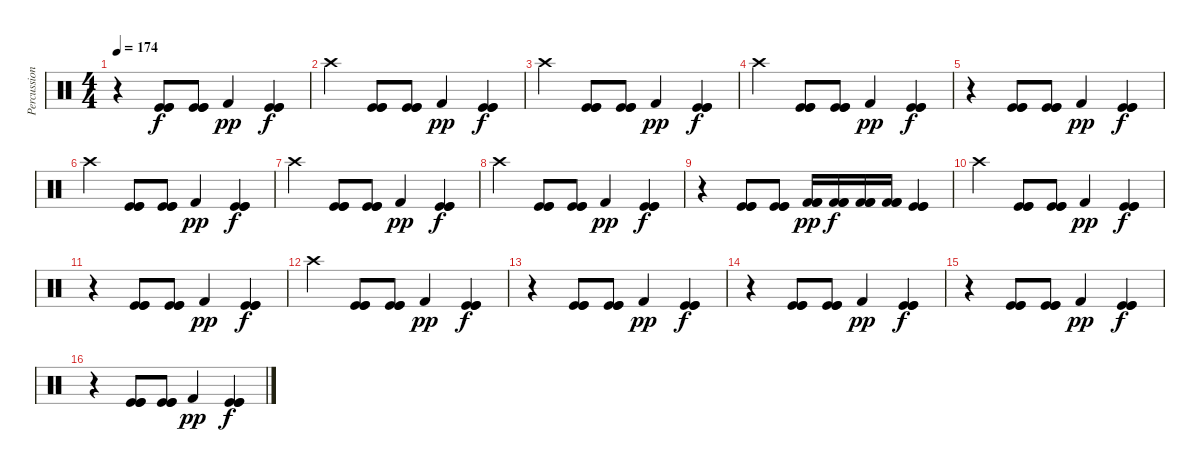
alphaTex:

\track ("Percussions" "Percussion") {instrument percussion}
\staff {score}
\articulation defaults
\ts (4 4)
\tempo 174
\clef neutral
\ks c
r.4{dy f} ("Kick (hit)" "Kick (hit)" "Kick (hit)").8 ("Kick (hit)" "Kick (hit)" "Kick (hit)").8 "Kick (hit) 2".4{dy pp} ("Kick (hit)" "Kick (hit)" "Kick (hit)").4{dy f} |
"Crash high (hit)".4 ("Kick (hit)" "Kick (hit)" "Kick (hit)").8 ("Kick (hit)" "Kick (hit)" "Kick (hit)").8 "Kick (hit) 2".4{dy pp} ("Kick (hit)" "Kick (hit)" "Kick (hit)").4{dy f} |
"Crash high (hit)".4 ("Kick (hit)" "Kick (hit)" "Kick (hit)").8 ("Kick (hit)" "Kick (hit)" "Kick (hit)").8 "Kick (hit) 2".4{dy pp} ("Kick (hit)" "Kick (hit)" "Kick (hit)").4{dy f} |
"Crash high (hit)".4 ("Kick (hit)" "Kick (hit)" "Kick (hit)").8 ("Kick (hit)" "Kick (hit)" "Kick (hit)").8 "Kick (hit) 2".4{dy pp} ("Kick (hit)" "Kick (hit)" "Kick (hit)").4{dy f} |
r.4 ("Kick (hit)" "Kick (hit)" "Kick (hit)").8 ("Kick (hit)" "Kick (hit)" "Kick (hit)").8 "Kick (hit) 2".4{dy pp} ("Kick (hit)" "Kick (hit)" "Kick (hit)").4{dy f} |
"Crash high (hit)".4 ("Kick (hit)" "Kick (hit)" "Kick (hit)").8 ("Kick (hit)" "Kick (hit)" "Kick (hit)").8 "Kick (hit) 2".4{dy pp} ("Kick (hit)" "Kick (hit)" "Kick (hit)").4{dy f} |
"Crash high (hit)".4 ("Kick (hit)" "Kick (hit)" "Kick (hit)").8 ("Kick (hit)" "Kick (hit)" "Kick (hit)").8 "Kick (hit) 2".4{dy pp} ("Kick (hit)" "Kick (hit)" "Kick (hit)").4{dy f} |
"Crash high (hit)".4 ("Kick (hit)" "Kick (hit)" "Kick (hit)").8 ("Kick (hit)" "Kick (hit)" "Kick (hit)").8 "Kick (hit) 2".4{dy pp} ("Kick (hit)" "Kick (hit)" "Kick (hit)").4{dy f} |
r.4 ("Kick (hit)" "Kick (hit)" "Kick (hit)").8 ("Kick (hit)" "Kick (hit)" "Kick (hit)").8 ("Kick (hit) 2" "Kick (hit) 2" "Kick (hit) 2").16{dy pp} ("Kick (hit) 2" "Kick (hit) 2" "Kick (hit) 2").16{dy f} ("Kick (hit) 2" "Kick (hit) 2" "Kick (hit) 2").16 ("Kick (hit) 2" "Kick (hit) 2" "Kick (hit) 2").16 ("Kick (hit)" "Kick (hit)" "Kick (hit)").4 |
"Crash high (hit)".4 ("Kick (hit)" "Kick (hit)" "Kick (hit)").8 ("Kick (hit)" "Kick (hit)" "Kick (hit)").8 "Kick (hit) 2".4{dy pp} ("Kick (hit)" "Kick (hit)" "Kick (hit)").4{dy f} |
r.4 ("Kick (hit)" "Kick (hit)" "Kick (hit)").8 ("Kick (hit)" "Kick (hit)" "Kick (hit)").8 "Kick (hit) 2".4{dy pp} ("Kick (hit)" "Kick (hit)" "Kick (hit)").4{dy f} |
"Crash high (hit)".4 ("Kick (hit)" "Kick (hit)" "Kick (hit)").8 ("Kick (hit)" "Kick (hit)" "Kick (hit)").8 "Kick (hit) 2".4{dy pp} ("Kick (hit)" "Kick (hit)" "Kick (hit)").4{dy f} |
r.4 ("Kick (hit)" "Kick (hit)" "Kick (hit)").8 ("Kick (hit)" "Kick (hit)" "Kick (hit)").8 "Kick (hit) 2".4{dy pp} ("Kick (hit)" "Kick (hit)" "Kick (hit)").4{dy f} |
r.4 ("Kick (hit)" "Kick (hit)" "Kick (hit)").8 ("Kick (hit)" "Kick (hit)" "Kick (hit)").8 "Kick (hit) 2".4{dy pp} ("Kick (hit)" "Kick (hit)" "Kick (hit)").4{dy f} |
r.4 ("Kick (hit)" "Kick (hit)" "Kick (hit)").8 ("Kick (hit)" "Kick (hit)" "Kick (hit)").8 "Kick (hit) 2".4{dy pp} ("Kick (hit)" "Kick (hit)" "Kick (hit)").4{dy f} |
r.4 ("Kick (hit)" "Kick (hit)" "Kick (hit)").8 ("Kick (hit)" "Kick (hit)" "Kick (hit)").8 "Kick (hit) 2".4{dy pp} ("Kick (hit)" "Kick (hit)" "Kick (hit)").4{dy f}
